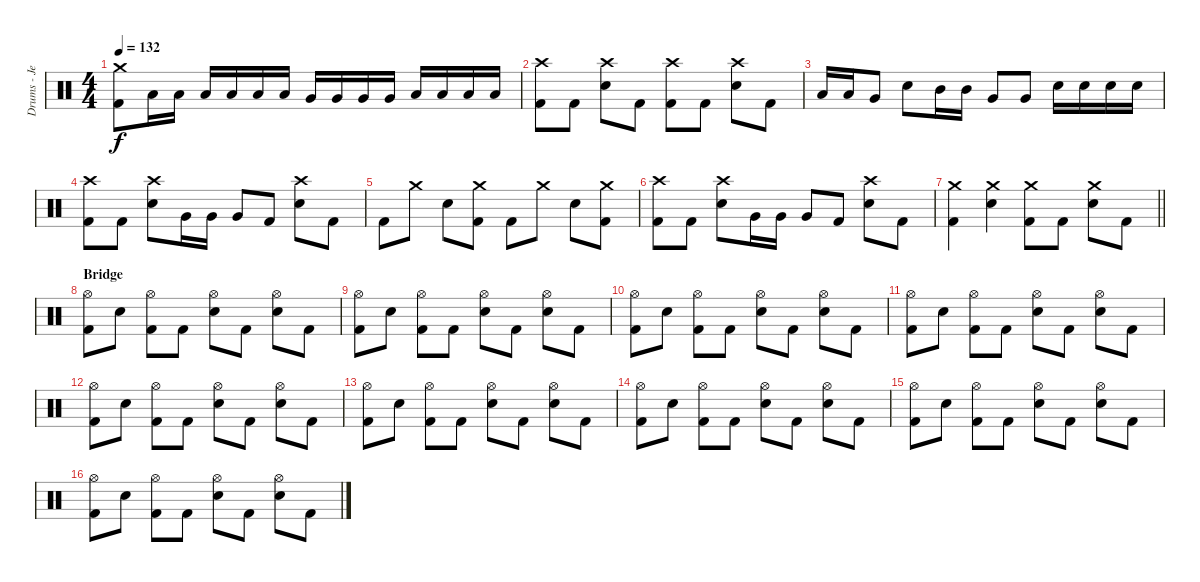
\track ("Drums - Jess Margera" "Drums - Je") {instrument percussion}
\staff {score}
\articulation defaults
\ts (4 4)
\tempo 132
\clef neutral
\ks c
("Crash medium (hit)" "Kick (hit) 2").8{dy f} "Low Tom (hit)".16 "Low Tom (hit)".16 "Low Tom (hit)".16 "Low Tom (hit)".16 "Low Tom (hit)".16 "Low Tom (hit)".16 "Very Low Tom (hit)".16 "Very Low Tom (hit)".16 "Very Low Tom (hit)".16 "Very Low Tom (hit)".16 "Low Floor Tom (hit)".16 "Low Floor Tom (hit)".16 "Low Floor Tom (hit)".16 "Low Floor Tom (hit)".16 |
("Crash high (hit)" "Kick (hit) 2").8 "Kick (hit) 2".8 ("Crash high (hit)" "Electric Snare (hit)").8 "Kick (hit) 2".8 ("Crash high (hit)" "Kick (hit) 2").8 "Kick (hit) 2".8 ("Crash high (hit)" "Electric Snare (hit)").8 "Kick (hit) 2".8 |
"Low Tom (hit)".16 "Low Tom (hit)".16 "Very Low Tom (hit)".8 "Electric Snare (hit)".8 "Mid Tom (hit)".16 "Mid Tom (hit)".16 "Very Low Tom (hit)".8 "Very Low Tom (hit)".8 "Electric Snare (hit)".16 "Electric Snare (hit)".16 "Electric Snare (hit)".16 "Electric Snare (hit)".16 |
("Crash high (hit)" "Kick (hit) 2").8 "Kick (hit) 2".8 ("Crash high (hit)" "Electric Snare (hit)").8 "Very Low Tom (hit)".16 "Very Low Tom (hit)".16 "Very Low Tom (hit)".8 "Kick (hit) 2".8 ("Crash high (hit)" "Electric Snare (hit)").8 "Kick (hit) 2".8 |
"Kick (hit) 2".8 "Crash medium (hit)".8 "Electric Snare (hit)".8 ("Crash medium (hit)" "Kick (hit) 2").8 "Kick (hit) 2".8 "Crash medium (hit)".8 "Electric Snare (hit)".8 ("Crash medium (hit)" "Kick (hit) 2").8 |
("Crash high (hit)" "Kick (hit) 2").8 "Kick (hit) 2".8 ("Crash high (hit)" "Electric Snare (hit)").8 "Very Low Tom (hit)".16 "Very Low Tom (hit)".16 "Very Low Tom (hit)".8 "Kick (hit) 2".8 ("Crash high (hit)" "Electric Snare (hit)").8 "Kick (hit) 2".8 |
\barLineRight lightlight
("Crash medium (hit)" "Kick (hit) 2").4 ("Crash medium (hit)" "Electric Snare (hit)").4 ("Crash medium (hit)" "Kick (hit) 2").8 "Kick (hit) 2".8 ("Crash medium (hit)" "Electric Snare (hit)").8 "Kick (hit) 2".8 |
\section ("" "Bridge")
("Hi-Hat (open)" "Kick (hit) 2").8 "Electric Snare (hit)".8 ("Hi-Hat (open)" "Kick (hit) 2").8 "Kick (hit) 2".8 ("Hi-Hat (open)" "Electric Snare (hit)").8 "Kick (hit) 2".8 ("Hi-Hat (open)" "Electric Snare (hit)").8 "Kick (hit) 2".8 |
("Hi-Hat (open)" "Kick (hit) 2").8 "Electric Snare (hit)".8 ("Hi-Hat (open)" "Kick (hit) 2").8 "Kick (hit) 2".8 ("Hi-Hat (open)" "Electric Snare (hit)").8 "Kick (hit) 2".8 ("Hi-Hat (open)" "Electric Snare (hit)").8 "Kick (hit) 2".8 |
("Hi-Hat (open)" "Kick (hit) 2").8 "Electric Snare (hit)".8 ("Hi-Hat (open)" "Kick (hit) 2").8 "Kick (hit) 2".8 ("Hi-Hat (open)" "Electric Snare (hit)").8 "Kick (hit) 2".8 ("Hi-Hat (open)" "Electric Snare (hit)").8 "Kick (hit) 2".8 |
("Hi-Hat (open)" "Kick (hit) 2").8 "Electric Snare (hit)".8 ("Hi-Hat (open)" "Kick (hit) 2").8 "Kick (hit) 2".8 ("Hi-Hat (open)" "Electric Snare (hit)").8 "Kick (hit) 2".8 ("Hi-Hat (open)" "Electric Snare (hit)").8 "Kick (hit) 2".8 |
("Hi-Hat (open)" "Kick (hit) 2").8 "Electric Snare (hit)".8 ("Hi-Hat (open)" "Kick (hit) 2").8 "Kick (hit) 2".8 ("Hi-Hat (open)" "Electric Snare (hit)").8 "Kick (hit) 2".8 ("Hi-Hat (open)" "Electric Snare (hit)").8 "Kick (hit) 2".8 |
("Hi-Hat (open)" "Kick (hit) 2").8 "Electric Snare (hit)".8 ("Hi-Hat (open)" "Kick (hit) 2").8 "Kick (hit) 2".8 ("Hi-Hat (open)" "Electric Snare (hit)").8 "Kick (hit) 2".8 ("Hi-Hat (open)" "Electric Snare (hit)").8 "Kick (hit) 2".8 |
("Hi-Hat (open)" "Kick (hit) 2").8 "Electric Snare (hit)".8 ("Hi-Hat (open)" "Kick (hit) 2").8 "Kick (hit) 2".8 ("Hi-Hat (open)" "Electric Snare (hit)").8 "Kick (hit) 2".8 ("Hi-Hat (open)" "Electric Snare (hit)").8 "Kick (hit) 2".8 |
("Hi-Hat (open)" "Kick (hit) 2").8 "Electric Snare (hit)".8 ("Hi-Hat (open)" "Kick (hit) 2").8 "Kick (hit) 2".8 ("Hi-Hat (open)" "Electric Snare (hit)").8 "Kick (hit) 2".8 ("Hi-Hat (open)" "Electric Snare (hit)").8 "Kick (hit) 2".8 |
("Hi-Hat (open)" "Kick (hit) 2").8 "Electric Snare (hit)".8 ("Hi-Hat (open)" "Kick (hit) 2").8 "Kick (hit) 2".8 ("Hi-Hat (open)" "Electric Snare (hit)").8 "Kick (hit) 2".8 ("Hi-Hat (open)" "Electric Snare (hit)").8 "Kick (hit) 2".8
